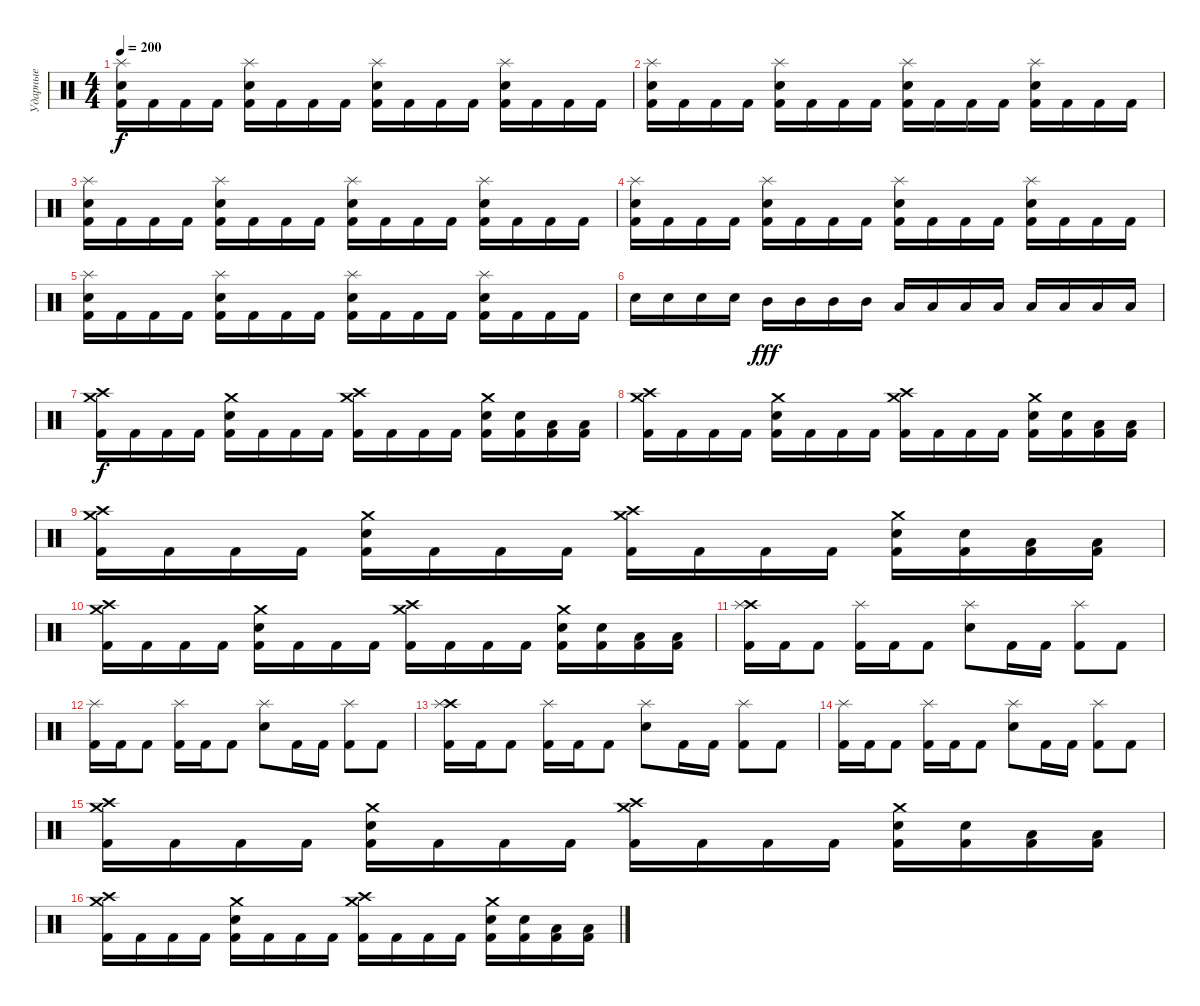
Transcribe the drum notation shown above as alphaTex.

\track ("Ударные" "Ударные") {instrument percussion}
\staff {score}
\articulation defaults
\ts (4 4)
\tempo 200
\clef neutral
\ks c
("Splash (hit)" "Electric Snare (hit)" "Kick (hit) 2").16{dy f} "Kick (hit) 2".16 "Kick (hit) 2".16 "Kick (hit) 2".16 ("Splash (hit)" "Electric Snare (hit)" "Kick (hit) 2").16 "Kick (hit) 2".16 "Kick (hit) 2".16 "Kick (hit) 2".16 ("Splash (hit)" "Electric Snare (hit)" "Kick (hit) 2").16 "Kick (hit) 2".16 "Kick (hit) 2".16 "Kick (hit) 2".16 ("Splash (hit)" "Electric Snare (hit)" "Kick (hit) 2").16 "Kick (hit) 2".16 "Kick (hit) 2".16 "Kick (hit) 2".16 |
("Splash (hit)" "Electric Snare (hit)" "Kick (hit) 2").16 "Kick (hit) 2".16 "Kick (hit) 2".16 "Kick (hit) 2".16 ("Splash (hit)" "Electric Snare (hit)" "Kick (hit) 2").16 "Kick (hit) 2".16 "Kick (hit) 2".16 "Kick (hit) 2".16 ("Splash (hit)" "Electric Snare (hit)" "Kick (hit) 2").16 "Kick (hit) 2".16 "Kick (hit) 2".16 "Kick (hit) 2".16 ("Splash (hit)" "Electric Snare (hit)" "Kick (hit) 2").16 "Kick (hit) 2".16 "Kick (hit) 2".16 "Kick (hit) 2".16 |
("Splash (hit)" "Electric Snare (hit)" "Kick (hit) 2").16 "Kick (hit) 2".16 "Kick (hit) 2".16 "Kick (hit) 2".16 ("Splash (hit)" "Electric Snare (hit)" "Kick (hit) 2").16 "Kick (hit) 2".16 "Kick (hit) 2".16 "Kick (hit) 2".16 ("Splash (hit)" "Electric Snare (hit)" "Kick (hit) 2").16 "Kick (hit) 2".16 "Kick (hit) 2".16 "Kick (hit) 2".16 ("Splash (hit)" "Electric Snare (hit)" "Kick (hit) 2").16 "Kick (hit) 2".16 "Kick (hit) 2".16 "Kick (hit) 2".16 |
("Splash (hit)" "Electric Snare (hit)" "Kick (hit) 2").16 "Kick (hit) 2".16 "Kick (hit) 2".16 "Kick (hit) 2".16 ("Splash (hit)" "Electric Snare (hit)" "Kick (hit) 2").16 "Kick (hit) 2".16 "Kick (hit) 2".16 "Kick (hit) 2".16 ("Splash (hit)" "Electric Snare (hit)" "Kick (hit) 2").16 "Kick (hit) 2".16 "Kick (hit) 2".16 "Kick (hit) 2".16 ("Splash (hit)" "Electric Snare (hit)" "Kick (hit) 2").16 "Kick (hit) 2".16 "Kick (hit) 2".16 "Kick (hit) 2".16 |
("Splash (hit)" "Electric Snare (hit)" "Kick (hit) 2").16 "Kick (hit) 2".16 "Kick (hit) 2".16 "Kick (hit) 2".16 ("Splash (hit)" "Electric Snare (hit)" "Kick (hit) 2").16 "Kick (hit) 2".16 "Kick (hit) 2".16 "Kick (hit) 2".16 ("Splash (hit)" "Electric Snare (hit)" "Kick (hit) 2").16 "Kick (hit) 2".16 "Kick (hit) 2".16 "Kick (hit) 2".16 ("Splash (hit)" "Electric Snare (hit)" "Kick (hit) 2").16 "Kick (hit) 2".16 "Kick (hit) 2".16 "Kick (hit) 2".16 |
"Snare (hit) 2".16 "Snare (hit) 2".16 "Snare (hit) 2".16 "Snare (hit) 2".16 "Mid Tom (hit)".16{dy fff} "Mid Tom (hit)".16 "Mid Tom (hit)".16 "Mid Tom (hit)".16 "Low Tom (hit)".16 "Low Tom (hit)".16 "Low Tom (hit)".16 "Low Tom (hit)".16 "Low Floor Tom (hit)".16 "Low Floor Tom (hit)".16 "Low Floor Tom (hit)".16 "Low Floor Tom (hit)".16 |
("Crash medium (hit)" "Crash high (hit)" "Kick (hit) 2").16{dy f} "Kick (hit) 2".16 "Kick (hit) 2".16 "Kick (hit) 2".16 ("Crash medium (hit)" "Electric Snare (hit)" "Kick (hit) 2").16 "Kick (hit) 2".16 "Kick (hit) 2".16 "Kick (hit) 2".16 ("Crash medium (hit)" "Crash high (hit)" "Kick (hit) 2").16 "Kick (hit) 2".16 "Kick (hit) 2".16 "Kick (hit) 2".16 ("Crash medium (hit)" "Electric Snare (hit)" "Kick (hit) 2").16 ("Electric Snare (hit)" "Kick (hit) 2").16 ("Low Tom (hit)" "Kick (hit) 2").16 ("Low Tom (hit)" "Kick (hit) 2").16 |
("Crash medium (hit)" "Crash high (hit)" "Kick (hit) 2").16 "Kick (hit) 2".16 "Kick (hit) 2".16 "Kick (hit) 2".16 ("Crash medium (hit)" "Electric Snare (hit)" "Kick (hit) 2").16 "Kick (hit) 2".16 "Kick (hit) 2".16 "Kick (hit) 2".16 ("Crash medium (hit)" "Crash high (hit)" "Kick (hit) 2").16 "Kick (hit) 2".16 "Kick (hit) 2".16 "Kick (hit) 2".16 ("Crash medium (hit)" "Electric Snare (hit)" "Kick (hit) 2").16 ("Electric Snare (hit)" "Kick (hit) 2").16 ("Low Tom (hit)" "Kick (hit) 2").16 ("Low Tom (hit)" "Kick (hit) 2").16 |
("Crash medium (hit)" "Crash high (hit)" "Kick (hit) 2").16 "Kick (hit) 2".16 "Kick (hit) 2".16 "Kick (hit) 2".16 ("Crash medium (hit)" "Electric Snare (hit)" "Kick (hit) 2").16 "Kick (hit) 2".16 "Kick (hit) 2".16 "Kick (hit) 2".16 ("Crash medium (hit)" "Crash high (hit)" "Kick (hit) 2").16 "Kick (hit) 2".16 "Kick (hit) 2".16 "Kick (hit) 2".16 ("Crash medium (hit)" "Electric Snare (hit)" "Kick (hit) 2").16 ("Electric Snare (hit)" "Kick (hit) 2").16 ("Low Tom (hit)" "Kick (hit) 2").16 ("Low Tom (hit)" "Kick (hit) 2").16 |
("Crash medium (hit)" "Crash high (hit)" "Kick (hit) 2").16 "Kick (hit) 2".16 "Kick (hit) 2".16 "Kick (hit) 2".16 ("Crash medium (hit)" "Electric Snare (hit)" "Kick (hit) 2").16 "Kick (hit) 2".16 "Kick (hit) 2".16 "Kick (hit) 2".16 ("Crash medium (hit)" "Crash high (hit)" "Kick (hit) 2").16 "Kick (hit) 2".16 "Kick (hit) 2".16 "Kick (hit) 2".16 ("Crash medium (hit)" "Electric Snare (hit)" "Kick (hit) 2").16 ("Electric Snare (hit)" "Kick (hit) 2").16 ("Low Tom (hit)" "Kick (hit) 2").16 ("Low Tom (hit)" "Kick (hit) 2").16 |
("Crash high (hit)" "Splash (hit)" "Kick (hit) 2").16 "Kick (hit) 2".16 "Kick (hit) 2".8 ("Splash (hit)" "Kick (hit) 2").16 "Kick (hit) 2".16 "Kick (hit) 2".8 ("Splash (hit)" "Electric Snare (hit)").8 "Kick (hit) 2".16 "Kick (hit) 2".16 ("Splash (hit)" "Kick (hit) 2").8 "Kick (hit) 2".8 |
("Splash (hit)" "Kick (hit) 2").16 "Kick (hit) 2".16 "Kick (hit) 2".8 ("Splash (hit)" "Kick (hit) 2").16 "Kick (hit) 2".16 "Kick (hit) 2".8 ("Splash (hit)" "Electric Snare (hit)").8 "Kick (hit) 2".16 "Kick (hit) 2".16 ("Splash (hit)" "Kick (hit) 2").8 "Kick (hit) 2".8 |
("Crash high (hit)" "Splash (hit)" "Kick (hit) 2").16 "Kick (hit) 2".16 "Kick (hit) 2".8 ("Splash (hit)" "Kick (hit) 2").16 "Kick (hit) 2".16 "Kick (hit) 2".8 ("Splash (hit)" "Electric Snare (hit)").8 "Kick (hit) 2".16 "Kick (hit) 2".16 ("Splash (hit)" "Kick (hit) 2").8 "Kick (hit) 2".8 |
("Splash (hit)" "Kick (hit) 2").16 "Kick (hit) 2".16 "Kick (hit) 2".8 ("Splash (hit)" "Kick (hit) 2").16 "Kick (hit) 2".16 "Kick (hit) 2".8 ("Splash (hit)" "Electric Snare (hit)").8 "Kick (hit) 2".16 "Kick (hit) 2".16 ("Splash (hit)" "Kick (hit) 2").8 "Kick (hit) 2".8 |
("Crash medium (hit)" "Crash high (hit)" "Kick (hit) 2").16 "Kick (hit) 2".16 "Kick (hit) 2".16 "Kick (hit) 2".16 ("Crash medium (hit)" "Electric Snare (hit)" "Kick (hit) 2").16 "Kick (hit) 2".16 "Kick (hit) 2".16 "Kick (hit) 2".16 ("Crash medium (hit)" "Crash high (hit)" "Kick (hit) 2").16 "Kick (hit) 2".16 "Kick (hit) 2".16 "Kick (hit) 2".16 ("Crash medium (hit)" "Electric Snare (hit)" "Kick (hit) 2").16 ("Electric Snare (hit)" "Kick (hit) 2").16 ("Low Tom (hit)" "Kick (hit) 2").16 ("Low Tom (hit)" "Kick (hit) 2").16 |
("Crash medium (hit)" "Crash high (hit)" "Kick (hit) 2").16 "Kick (hit) 2".16 "Kick (hit) 2".16 "Kick (hit) 2".16 ("Crash medium (hit)" "Electric Snare (hit)" "Kick (hit) 2").16 "Kick (hit) 2".16 "Kick (hit) 2".16 "Kick (hit) 2".16 ("Crash medium (hit)" "Crash high (hit)" "Kick (hit) 2").16 "Kick (hit) 2".16 "Kick (hit) 2".16 "Kick (hit) 2".16 ("Crash medium (hit)" "Electric Snare (hit)" "Kick (hit) 2").16 ("Electric Snare (hit)" "Kick (hit) 2").16 ("Low Tom (hit)" "Kick (hit) 2").16 ("Low Tom (hit)" "Kick (hit) 2").16
